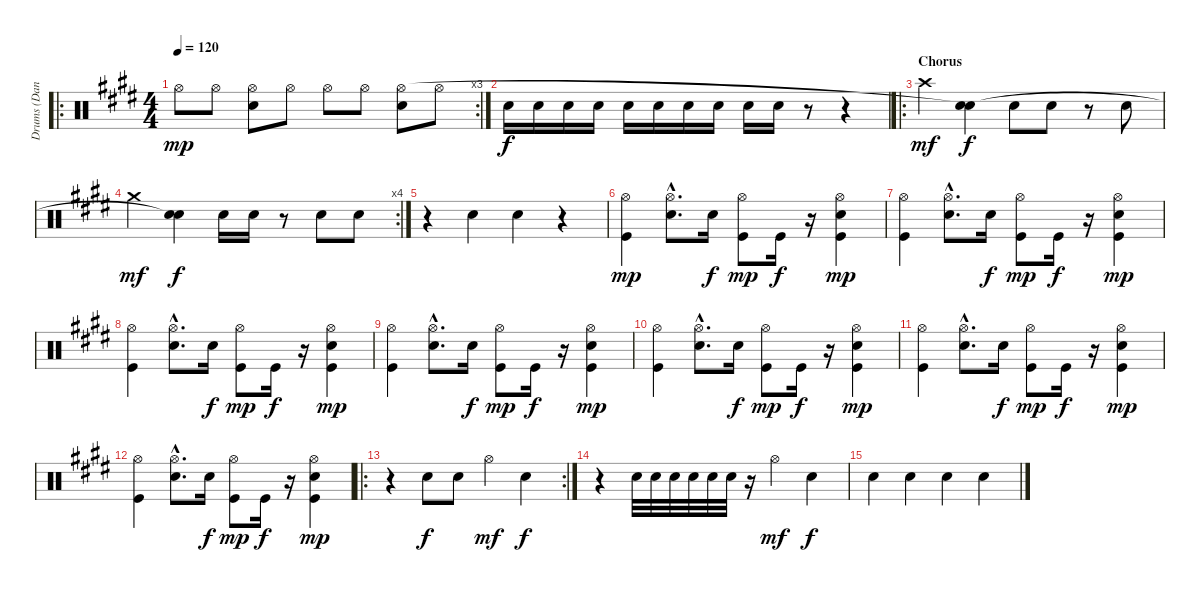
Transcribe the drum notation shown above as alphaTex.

\track ("Drums (Dan Rieser)" "Drums (Dan") {instrument percussion}
\staff {score}
\articulation defaults
\ro
\rc 3
\ts (4 4)
\tempo 120
\clef neutral
\ks e "Hi-Hat (open)".8{dy mp} "Hi-Hat (open)".8
("Snare (hit) 2" "Hi-Hat (open)").8 "Hi-Hat (open)".8 "Hi-Hat (open)".8 "Hi-Hat (open)".8 ("Snare (hit) 2" "Hi-Hat (open)").8 "Hi-Hat (open)".8 |
"Snare (hit) 2".16{dy f} "Snare (hit) 2".16 "Snare (hit) 2".16 "Snare (hit) 2".16 "Snare (hit) 2".16 "Snare (hit) 2".16 "Snare (hit) 2".16 "Snare (hit) 2".16 "Snare (hit) 2".16 "Snare (hit) 2".16 r.8 r.4 |
\ro
\section ("" "Chorus")
"Crash high (hit)".4{dy mf} ("Snare (hit) 2" "Snare (hit)"{t}).4{dy f} "Snare (hit) 2".8 "Snare (hit) 2".8 r.8 "Snare (hit) 2".8 |
\rc 4 "Crash medium (hit)".4{dy mf}
("Snare (hit) 2" "Snare (hit)"{t}).4{dy f} "Snare (hit) 2".16 "Snare (hit) 2".16 r.8 "Snare (hit) 2".8 "Snare (hit) 2".8 |
r.4 "Snare (hit) 2".4 "Snare (hit) 2".4 r.4 |
("Kick (hit)" "Hi-Hat (open)").4{dy mp} ("Snare (hit) 2"{hac} "Hi-Hat (open)"{hac}).8{d} "Snare (hit) 2".16{dy f} ("Kick (hit)" "Hi-Hat (open)").8{dy mp} "Kick (hit)".16{dy f} r.16 ("Kick (hit)" "Snare (hit) 2" "Hi-Hat (open)").4{dy mp} |
("Kick (hit)" "Hi-Hat (open)").4 ("Snare (hit) 2"{hac} "Hi-Hat (open)"{hac}).8{d} "Snare (hit) 2".16{dy f} ("Kick (hit)" "Hi-Hat (open)").8{dy mp} "Kick (hit)".16{dy f} r.16 ("Kick (hit)" "Snare (hit) 2" "Hi-Hat (open)").4{dy mp} |
("Kick (hit)" "Hi-Hat (open)").4 ("Snare (hit) 2"{hac} "Hi-Hat (open)"{hac}).8{d} "Snare (hit) 2".16{dy f} ("Kick (hit)" "Hi-Hat (open)").8{dy mp} "Kick (hit)".16{dy f} r.16 ("Kick (hit)" "Snare (hit) 2" "Hi-Hat (open)").4{dy mp} |
("Kick (hit)" "Hi-Hat (open)").4 ("Snare (hit) 2"{hac} "Hi-Hat (open)"{hac}).8{d} "Snare (hit) 2".16{dy f} ("Kick (hit)" "Hi-Hat (open)").8{dy mp} "Kick (hit)".16{dy f} r.16 ("Kick (hit)" "Snare (hit) 2" "Hi-Hat (open)").4{dy mp} |
("Kick (hit)" "Hi-Hat (open)").4 ("Snare (hit) 2"{hac} "Hi-Hat (open)"{hac}).8{d} "Snare (hit) 2".16{dy f} ("Kick (hit)" "Hi-Hat (open)").8{dy mp} "Kick (hit)".16{dy f} r.16 ("Kick (hit)" "Snare (hit) 2" "Hi-Hat (open)").4{dy mp} |
("Kick (hit)" "Hi-Hat (open)").4 ("Snare (hit) 2"{hac} "Hi-Hat (open)"{hac}).8{d} "Snare (hit) 2".16{dy f} ("Kick (hit)" "Hi-Hat (open)").8{dy mp} "Kick (hit)".16{dy f} r.16 ("Kick (hit)" "Snare (hit) 2" "Hi-Hat (open)").4{dy mp} |
("Kick (hit)" "Hi-Hat (open)").4 ("Snare (hit) 2"{hac} "Hi-Hat (open)"{hac}).8{d} "Snare (hit) 2".16{dy f} ("Kick (hit)" "Hi-Hat (open)").8{dy mp} "Kick (hit)".16{dy f} r.16 ("Kick (hit)" "Snare (hit) 2" "Hi-Hat (open)").4{dy mp} |
\ro
\rc 2
r.4 "Snare (hit) 2".8{dy f} "Snare (hit) 2".8 "Hi-Hat (open)".4{dy mf} "Snare (hit) 2".4{dy f} |
r.4 "Snare (hit) 2".32 "Snare (hit) 2".32 "Snare (hit) 2".32 "Snare (hit) 2".32 "Snare (hit) 2".32 "Snare (hit) 2".32 r.16 "Hi-Hat (open)".4{dy mf} "Snare (hit) 2".4{dy f} |
"Snare (hit) 2".4 "Snare (hit) 2".4 "Snare (hit) 2".4 "Snare (hit) 2".4
